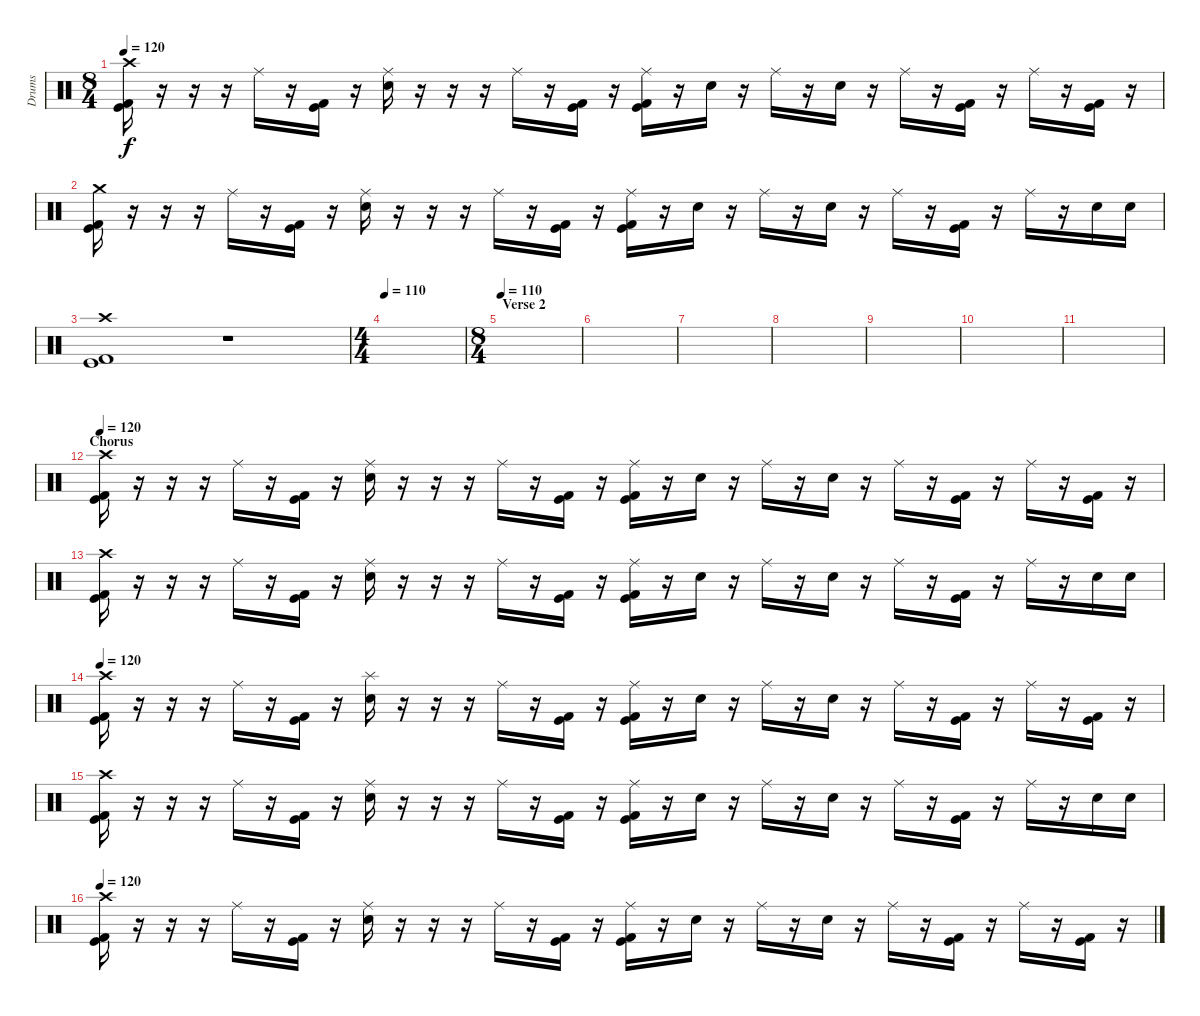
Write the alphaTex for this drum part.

\track ("Drums" "Drums") {instrument percussion}
\staff {score}
\articulation defaults
\ts (8 4)
\tempo 120
\clef neutral
\ks c
("Crash high (hit)" "Kick (hit)" "Kick (hit) 2").16{dy f} r.16 r.16 r.16 "Ride (middle)".16 r.16 ("Kick (hit) 2" "Kick (hit)").16 r.16 ("Ride (middle)" "Electric Snare (hit)").16 r.16 r.16 r.16 "Ride (middle)".16 r.16 ("Kick (hit) 2" "Kick (hit)").16 r.16 ("Ride (middle)" "Kick (hit) 2" "Kick (hit)").16 r.16 "Electric Snare (hit)".16 r.16 "Ride (middle)".16 r.16 "Electric Snare (hit)".16 r.16 "Ride (middle)".16 r.16 ("Kick (hit) 2" "Kick (hit)").16 r.16 "Ride (middle)".16 r.16 ("Kick (hit) 2" "Kick (hit)").16 r.16 |
("Crash medium (hit)" "Kick (hit)" "Kick (hit) 2").16 r.16 r.16 r.16 "Ride (middle)".16 r.16 ("Kick (hit) 2" "Kick (hit)").16 r.16 ("Ride (middle)" "Electric Snare (hit)").16 r.16 r.16 r.16 "Ride (middle)".16 r.16 ("Kick (hit) 2" "Kick (hit)").16 r.16 ("Ride (middle)" "Kick (hit) 2" "Kick (hit)").16 r.16 "Electric Snare (hit)".16 r.16 "Ride (middle)".16 r.16 "Electric Snare (hit)".16 r.16 "Ride (middle)".16 r.16 ("Kick (hit) 2" "Kick (hit)").16 r.16 "Ride (middle)".16 r.16 "Electric Snare (hit)".16 "Electric Snare (hit)".16 |
("Crash high (hit)" "Kick (hit)" "Kick (hit) 2").1 r.1 |
\ts (4 4)
\tempo 110
|
\ts (8 4)
\section ("" "Verse 2")
\tempo 110
|
|
|
|
|
|
|
\section ("" "Chorus")
\tempo 120
("Crash high (hit)" "Kick (hit)" "Kick (hit) 2").16 r.16 r.16 r.16 "Ride (middle)".16 r.16 ("Kick (hit) 2" "Kick (hit)").16 r.16 ("Ride (middle)" "Electric Snare (hit)").16 r.16 r.16 r.16 "Ride (middle)".16 r.16 ("Kick (hit) 2" "Kick (hit)").16 r.16 ("Ride (middle)" "Kick (hit) 2" "Kick (hit)").16 r.16 "Electric Snare (hit)".16 r.16 "Ride (middle)".16 r.16 "Electric Snare (hit)".16 r.16 "Ride (middle)".16 r.16 ("Kick (hit) 2" "Kick (hit)").16 r.16 "Ride (middle)".16 r.16 ("Kick (hit) 2" "Kick (hit)").16 r.16 |
("Crash high (hit)" "Kick (hit)" "Kick (hit) 2").16 r.16 r.16 r.16 "Ride (middle)".16 r.16 ("Kick (hit) 2" "Kick (hit)").16 r.16 ("Ride (middle)" "Electric Snare (hit)").16 r.16 r.16 r.16 "Ride (middle)".16 r.16 ("Kick (hit) 2" "Kick (hit)").16 r.16 ("Ride (middle)" "Kick (hit) 2" "Kick (hit)").16 r.16 "Electric Snare (hit)".16 r.16 "Ride (middle)".16 r.16 "Electric Snare (hit)".16 r.16 "Ride (middle)".16 r.16 ("Kick (hit) 2" "Kick (hit)").16 r.16 "Ride (middle)".16 r.16 "Electric Snare (hit)".16 "Electric Snare (hit)".16 |
\tempo 120
("Crash high (hit)" "Kick (hit)" "Kick (hit) 2").16 r.16 r.16 r.16 "Ride (middle)".16 r.16 ("Kick (hit) 2" "Kick (hit)").16 r.16 ("Splash (hit)" "Electric Snare (hit)").16 r.16 r.16 r.16 "Ride (middle)".16 r.16 ("Kick (hit) 2" "Kick (hit)").16 r.16 ("Ride (middle)" "Kick (hit) 2" "Kick (hit)").16 r.16 "Electric Snare (hit)".16 r.16 "Ride (middle)".16 r.16 "Electric Snare (hit)".16 r.16 "Ride (middle)".16 r.16 ("Kick (hit) 2" "Kick (hit)").16 r.16 "Ride (middle)".16 r.16 ("Kick (hit) 2" "Kick (hit)").16 r.16 |
("Crash high (hit)" "Kick (hit)" "Kick (hit) 2").16 r.16 r.16 r.16 "Ride (middle)".16 r.16 ("Kick (hit) 2" "Kick (hit)").16 r.16 ("Ride (middle)" "Electric Snare (hit)").16 r.16 r.16 r.16 "Ride (middle)".16 r.16 ("Kick (hit) 2" "Kick (hit)").16 r.16 ("Ride (middle)" "Kick (hit) 2" "Kick (hit)").16 r.16 "Electric Snare (hit)".16 r.16 "Ride (middle)".16 r.16 "Electric Snare (hit)".16 r.16 "Ride (middle)".16 r.16 ("Kick (hit) 2" "Kick (hit)").16 r.16 "Ride (middle)".16 r.16 "Electric Snare (hit)".16 "Electric Snare (hit)".16 |
\tempo 120
("Crash high (hit)" "Kick (hit)" "Kick (hit) 2").16 r.16 r.16 r.16 "Ride (middle)".16 r.16 ("Kick (hit) 2" "Kick (hit)").16 r.16 ("Ride (middle)" "Electric Snare (hit)").16 r.16 r.16 r.16 "Ride (middle)".16 r.16 ("Kick (hit) 2" "Kick (hit)").16 r.16 ("Ride (middle)" "Kick (hit) 2" "Kick (hit)").16 r.16 "Electric Snare (hit)".16 r.16 "Ride (middle)".16 r.16 "Electric Snare (hit)".16 r.16 "Ride (middle)".16 r.16 ("Kick (hit) 2" "Kick (hit)").16 r.16 "Ride (middle)".16 r.16 ("Kick (hit) 2" "Kick (hit)").16 r.16
